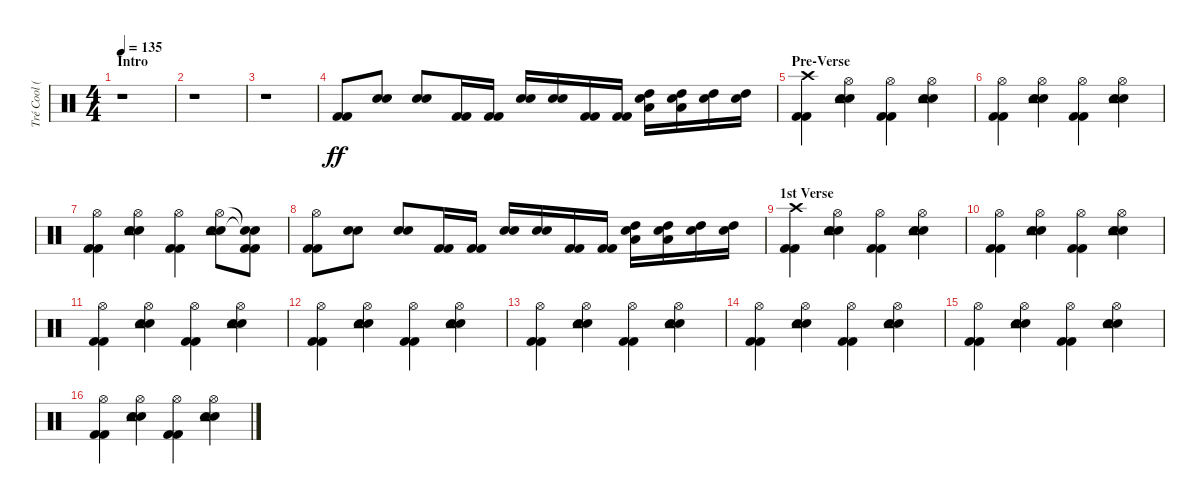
\track ("Tré Cool (Drums)" "Tré Cool (") {instrument percussion}
\staff {score}
\articulation defaults
\ts (4 4)
\section ("" "Intro")
\tempo 135
\clef neutral
\ks c
r.1{dy ff} |
r.1 |
r.1 |
("Kick (hit) 2" "Kick (hit) 2").8 ("Snare (hit) 2" "Snare (hit) 2").8 ("Snare (hit) 2" "Snare (hit) 2").8 ("Kick (hit) 2" "Kick (hit) 2").16 ("Kick (hit) 2" "Kick (hit) 2").16 ("Snare (hit) 2" "Snare (hit) 2").16 ("Snare (hit) 2" "Snare (hit) 2").16 ("Kick (hit) 2" "Kick (hit) 2").16 ("Kick (hit) 2" "Kick (hit) 2").16 ("Snare (hit) 2" "High Tom (hit)" "Low Floor Tom (hit)").16 ("Snare (hit) 2" "High Tom (hit)" "Low Floor Tom (hit)").16 ("Snare (hit) 2" "High Tom (hit)").16 ("Snare (hit) 2" "High Tom (hit)").16 |
\section ("" "Pre-Verse")
("Kick (hit) 2" "Kick (hit) 2" "Crash high (hit)").4 ("Snare (hit) 2" "Snare (hit) 2" "Tambourine (hit)" "Hi-Hat (open)").4 ("Kick (hit) 2" "Kick (hit) 2" "Hi-Hat (open)").4 ("Snare (hit) 2" "Snare (hit) 2" "Tambourine (hit)" "Hi-Hat (open)").4 |
("Kick (hit) 2" "Kick (hit) 2" "Hi-Hat (open)").4 ("Snare (hit) 2" "Snare (hit) 2" "Tambourine (hit)" "Hi-Hat (open)").4 ("Kick (hit) 2" "Kick (hit) 2" "Hi-Hat (open)").4 ("Snare (hit) 2" "Snare (hit) 2" "Tambourine (hit)" "Hi-Hat (open)").4 |
("Kick (hit) 2" "Kick (hit) 2" "Hi-Hat (open)").4 ("Snare (hit) 2" "Snare (hit) 2" "Tambourine (hit)" "Hi-Hat (open)").4 ("Kick (hit) 2" "Kick (hit) 2" "Hi-Hat (open)").4 ("Snare (hit) 2" "Snare (hit) 2" "Tambourine (hit)" "Hi-Hat (open)").8 ("Kick (hit) 2" "Kick (hit) 2" "Snare (hit)"{t} "Snare (hit)"{t}).8 |
("Kick (hit) 2" "Kick (hit) 2" "Hi-Hat (open)").8 ("Snare (hit) 2" "Snare (hit) 2").8 ("Snare (hit) 2" "Snare (hit) 2").8 ("Kick (hit) 2" "Kick (hit) 2").16 ("Kick (hit) 2" "Kick (hit) 2").16 ("Snare (hit) 2" "Snare (hit) 2").16 ("Snare (hit) 2" "Snare (hit) 2").16 ("Kick (hit) 2" "Kick (hit) 2").16 ("Kick (hit) 2" "Kick (hit) 2").16 ("Snare (hit) 2" "High Tom (hit)" "Low Floor Tom (hit)").16 ("Snare (hit) 2" "High Tom (hit)" "Low Floor Tom (hit)").16 ("Snare (hit) 2" "High Tom (hit)").16 ("Snare (hit) 2" "High Tom (hit)").16 |
\section ("" "1st Verse")
("Kick (hit) 2" "Kick (hit) 2" "Crash high (hit)").4 ("Snare (hit) 2" "Snare (hit) 2" "Tambourine (hit)" "Hi-Hat (open)").4 ("Kick (hit) 2" "Kick (hit) 2" "Hi-Hat (open)").4 ("Snare (hit) 2" "Snare (hit) 2" "Tambourine (hit)" "Hi-Hat (open)").4 |
("Kick (hit) 2" "Kick (hit) 2" "Hi-Hat (open)").4 ("Snare (hit) 2" "Snare (hit) 2" "Tambourine (hit)" "Hi-Hat (open)").4 ("Kick (hit) 2" "Kick (hit) 2" "Hi-Hat (open)").4 ("Snare (hit) 2" "Snare (hit) 2" "Tambourine (hit)" "Hi-Hat (open)").4 |
("Kick (hit) 2" "Kick (hit) 2" "Hi-Hat (open)").4 ("Snare (hit) 2" "Snare (hit) 2" "Tambourine (hit)" "Hi-Hat (open)").4 ("Kick (hit) 2" "Kick (hit) 2" "Hi-Hat (open)").4 ("Snare (hit) 2" "Snare (hit) 2" "Tambourine (hit)" "Hi-Hat (open)").4 |
("Kick (hit) 2" "Kick (hit) 2" "Hi-Hat (open)").4 ("Snare (hit) 2" "Snare (hit) 2" "Tambourine (hit)" "Hi-Hat (open)").4 ("Kick (hit) 2" "Kick (hit) 2" "Hi-Hat (open)").4 ("Snare (hit) 2" "Snare (hit) 2" "Tambourine (hit)" "Hi-Hat (open)").4 |
("Kick (hit) 2" "Kick (hit) 2" "Hi-Hat (open)").4 ("Snare (hit) 2" "Snare (hit) 2" "Tambourine (hit)" "Hi-Hat (open)").4 ("Kick (hit) 2" "Kick (hit) 2" "Hi-Hat (open)").4 ("Snare (hit) 2" "Snare (hit) 2" "Tambourine (hit)" "Hi-Hat (open)").4 |
("Kick (hit) 2" "Kick (hit) 2" "Hi-Hat (open)").4 ("Snare (hit) 2" "Snare (hit) 2" "Tambourine (hit)" "Hi-Hat (open)").4 ("Kick (hit) 2" "Kick (hit) 2" "Hi-Hat (open)").4 ("Snare (hit) 2" "Snare (hit) 2" "Tambourine (hit)" "Hi-Hat (open)").4 |
("Kick (hit) 2" "Kick (hit) 2" "Hi-Hat (open)").4 ("Snare (hit) 2" "Snare (hit) 2" "Tambourine (hit)" "Hi-Hat (open)").4 ("Kick (hit) 2" "Kick (hit) 2" "Hi-Hat (open)").4 ("Snare (hit) 2" "Snare (hit) 2" "Tambourine (hit)" "Hi-Hat (open)").4 |
("Kick (hit) 2" "Kick (hit) 2" "Hi-Hat (open)").4 ("Snare (hit) 2" "Snare (hit) 2" "Tambourine (hit)" "Hi-Hat (open)").4 ("Kick (hit) 2" "Kick (hit) 2" "Hi-Hat (open)").4 ("Snare (hit) 2" "Snare (hit) 2" "Tambourine (hit)" "Hi-Hat (open)").4
